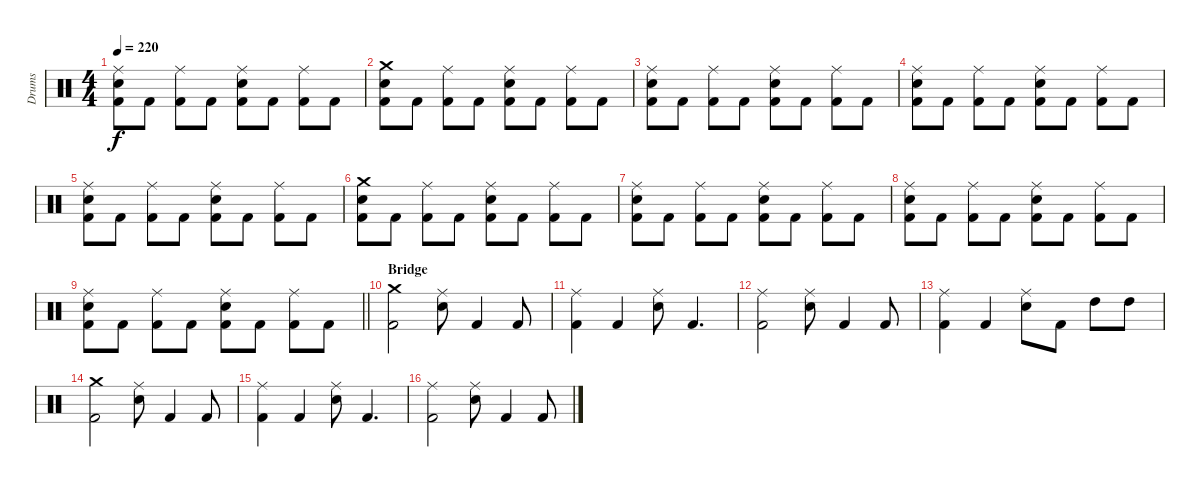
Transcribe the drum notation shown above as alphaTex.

\track ("Drums" "Drums") {instrument percussion}
\staff {score}
\articulation defaults
\ts (4 4)
\tempo 220
\clef neutral
\ks c
("Kick (hit) 2" "Snare (hit) 2" "Ride (middle)").8{dy f} "Kick (hit) 2".8 ("Kick (hit) 2" "Ride (middle)").8 "Kick (hit) 2".8 ("Kick (hit) 2" "Snare (hit) 2" "Ride (middle)").8 "Kick (hit) 2".8 ("Kick (hit) 2" "Ride (middle)").8 "Kick (hit) 2".8 |
("Kick (hit) 2" "Snare (hit) 2" "Crash medium (hit)").8 "Kick (hit) 2".8 ("Kick (hit) 2" "Ride (middle)").8 "Kick (hit) 2".8 ("Kick (hit) 2" "Snare (hit) 2" "Ride (middle)").8 "Kick (hit) 2".8 ("Kick (hit) 2" "Ride (middle)").8 "Kick (hit) 2".8 |
("Kick (hit) 2" "Snare (hit) 2" "Ride (middle)").8 "Kick (hit) 2".8 ("Kick (hit) 2" "Ride (middle)").8 "Kick (hit) 2".8 ("Kick (hit) 2" "Snare (hit) 2" "Ride (middle)").8 "Kick (hit) 2".8 ("Kick (hit) 2" "Ride (middle)").8 "Kick (hit) 2".8 |
("Kick (hit) 2" "Snare (hit) 2" "Ride (middle)").8 "Kick (hit) 2".8 ("Kick (hit) 2" "Ride (middle)").8 "Kick (hit) 2".8 ("Kick (hit) 2" "Snare (hit) 2" "Ride (middle)").8 "Kick (hit) 2".8 ("Kick (hit) 2" "Ride (middle)").8 "Kick (hit) 2".8 |
("Kick (hit) 2" "Snare (hit) 2" "Ride (middle)").8 "Kick (hit) 2".8 ("Kick (hit) 2" "Ride (middle)").8 "Kick (hit) 2".8 ("Kick (hit) 2" "Snare (hit) 2" "Ride (middle)").8 "Kick (hit) 2".8 ("Kick (hit) 2" "Ride (middle)").8 "Kick (hit) 2".8 |
("Kick (hit) 2" "Snare (hit) 2" "Crash medium (hit)").8 "Kick (hit) 2".8 ("Kick (hit) 2" "Ride (middle)").8 "Kick (hit) 2".8 ("Kick (hit) 2" "Snare (hit) 2" "Ride (middle)").8 "Kick (hit) 2".8 ("Kick (hit) 2" "Ride (middle)").8 "Kick (hit) 2".8 |
("Kick (hit) 2" "Snare (hit) 2" "Ride (middle)").8 "Kick (hit) 2".8 ("Kick (hit) 2" "Ride (middle)").8 "Kick (hit) 2".8 ("Kick (hit) 2" "Snare (hit) 2" "Ride (middle)").8 "Kick (hit) 2".8 ("Kick (hit) 2" "Ride (middle)").8 "Kick (hit) 2".8 |
("Kick (hit) 2" "Snare (hit) 2" "Ride (middle)").8 "Kick (hit) 2".8 ("Kick (hit) 2" "Ride (middle)").8 "Kick (hit) 2".8 ("Kick (hit) 2" "Snare (hit) 2" "Ride (middle)").8 "Kick (hit) 2".8 ("Kick (hit) 2" "Ride (middle)").8 "Kick (hit) 2".8 |
\barLineRight lightlight
("Kick (hit) 2" "Snare (hit) 2" "Ride (middle)").8 "Kick (hit) 2".8 ("Kick (hit) 2" "Ride (middle)").8 "Kick (hit) 2".8 ("Kick (hit) 2" "Snare (hit) 2" "Ride (middle)").8 "Kick (hit) 2".8 ("Kick (hit) 2" "Ride (middle)").8 "Kick (hit) 2".8 |
\section ("" "Bridge")
("Kick (hit) 2" "Crash medium (hit)").2 ("Snare (hit) 2" "Ride (middle)").8 "Kick (hit) 2".4 "Kick (hit) 2".8 |
("Kick (hit) 2" "Ride (middle)").4 "Kick (hit) 2".4 ("Snare (hit) 2" "Ride (middle)").8 "Kick (hit) 2".4{d} |
("Kick (hit) 2" "Ride (middle)").2 ("Snare (hit) 2" "Ride (middle)").8 "Kick (hit) 2".4 "Kick (hit) 2".8 |
("Kick (hit) 2" "Ride (middle)").4 "Kick (hit) 2".4 ("Snare (hit) 2" "Ride (middle)").8 "Kick (hit) 2".8 "High Tom (hit)".8 "High Tom (hit)".8 |
("Kick (hit) 2" "Crash medium (hit)").2 ("Snare (hit) 2" "Ride (middle)").8 "Kick (hit) 2".4 "Kick (hit) 2".8 |
("Kick (hit) 2" "Ride (middle)").4 "Kick (hit) 2".4 ("Snare (hit) 2" "Ride (middle)").8 "Kick (hit) 2".4{d} |
("Kick (hit) 2" "Ride (middle)").2 ("Snare (hit) 2" "Ride (middle)").8 "Kick (hit) 2".4 "Kick (hit) 2".8
